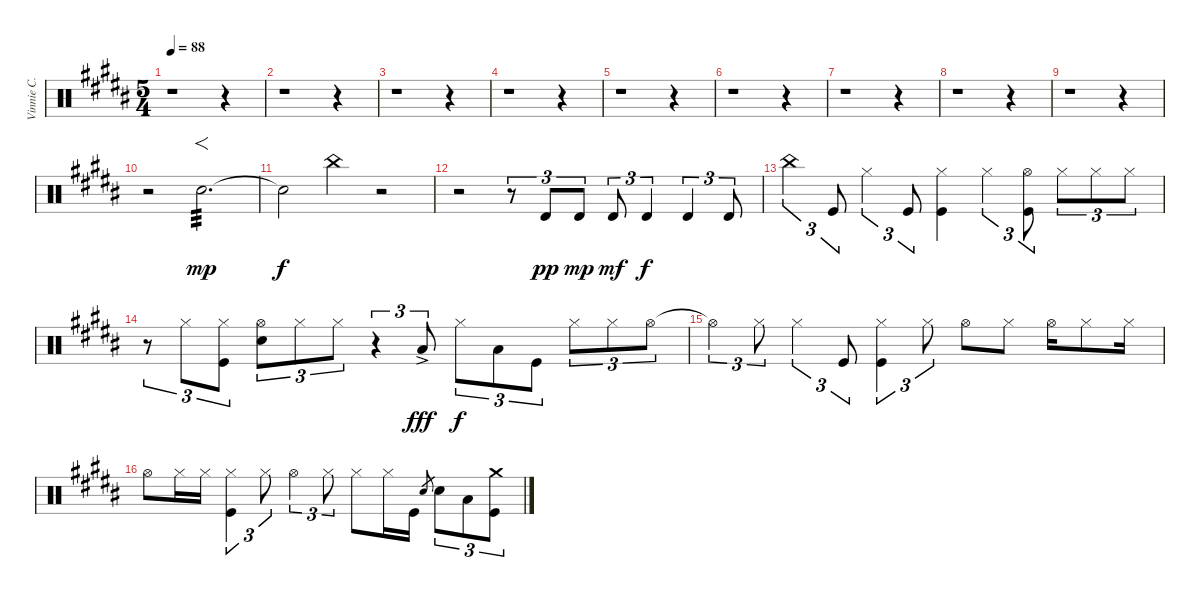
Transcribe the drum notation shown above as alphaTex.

\track ("Vinnie C." "Vinnie C.") {instrument percussion}
\staff {score}
\articulation defaults
\ts (5 4)
\tempo 88
\clef neutral
\ks b
r.1{dy mp} r.4 |
r.1 r.4 |
r.1 r.4 |
r.1 r.4 |
r.1 r.4 |
r.1 r.4 |
r.1 r.4 |
r.1 r.4 |
r.1 r.4 |
r.2 "Snare (hit) 2".2{f d tp 3} |
"Snare (hit) 2"{t}.2{dy f} "China (hit)".4 r.2 |
r.2 r.8{tu (3 2)} "Timbale high (hit)".8{tu (3 2) dy pp} "Timbale high (hit)".8{tu (3 2) dy mp} "Timbale high (hit)".8{tu (3 2) dy mf} "Timbale high (hit)".4{tu (3 2) dy f} "Timbale high (hit)".4{tu (3 2)} "Timbale high (hit)".8{tu (3 2)} |
"China (hit)".4{tu (3 2)} "Kick (hit)".8{tu (3 2)} "Hi-Hat (closed)".4{tu (3 2)} "Kick (hit)".8{tu (3 2)} ("Hi-Hat (closed)" "Kick (hit)").4 "Hi-Hat (closed)".4{tu (3 2)} ("Hi-Hat (open)" "Kick (hit)").8{tu (3 2)} "Hi-Hat (closed)".8{tu (3 2)} "Hi-Hat (closed)".8{tu (3 2)} "Hi-Hat (closed)".8{tu (3 2)} |
r.8{tu (3 2)} "Hi-Hat (closed)".8{tu (3 2)} ("Hi-Hat (closed)" "Kick (hit)").8{tu (3 2)} ("Hi-Hat (open)" "Electric Snare (hit)").8{tu (3 2)} "Hi-Hat (closed)".8{tu (3 2)} "Hi-Hat (closed)".8{tu (3 2)} r.4{tu (3 2)} "Low Tom (hit)"{ac}.8{tu (3 2) dy fff} "Hi-Hat (closed)".8{tu (3 2) dy f} "Low Tom (hit)".8{tu (3 2)} "Kick (hit)".8{tu (3 2)} "Hi-Hat (closed)".8{tu (3 2)} "Hi-Hat (closed)".8{tu (3 2)} "Hi-Hat (open)".8{tu (3 2)} |
"Hi-Hat (open)"{t}.4{tu (3 2)} "Hi-Hat (closed)".8{tu (3 2)} "Hi-Hat (closed)".4{tu (3 2)} "Kick (hit)".8{tu (3 2)} ("Hi-Hat (closed)" "Kick (hit)").4{tu (3 2)} "Hi-Hat (closed)".8{tu (3 2)} "Hi-Hat (open)".8 "Hi-Hat (closed)".8 "Hi-Hat (open)".16 "Hi-Hat (closed)".8 "Hi-Hat (closed)".16 |
"Hi-Hat (open)".8 "Hi-Hat (closed)".16 "Hi-Hat (closed)".16 ("Hi-Hat (closed)" "Kick (hit)").4{tu (3 2)} "Hi-Hat (closed)".8{tu (3 2)} "Hi-Hat (open)".4{tu (3 2)} "Hi-Hat (closed)".8{tu (3 2)} "Hi-Hat (closed)".8 "Hi-Hat (closed)".16 "Kick (hit)".16 "Electric Snare (hit)".8{gr} "Electric Snare (hit)".8{tu (3 2)} "Low Tom (hit)".8{tu (3 2)} ("Crash medium (hit)" "Kick (hit)").8{tu (3 2)}
